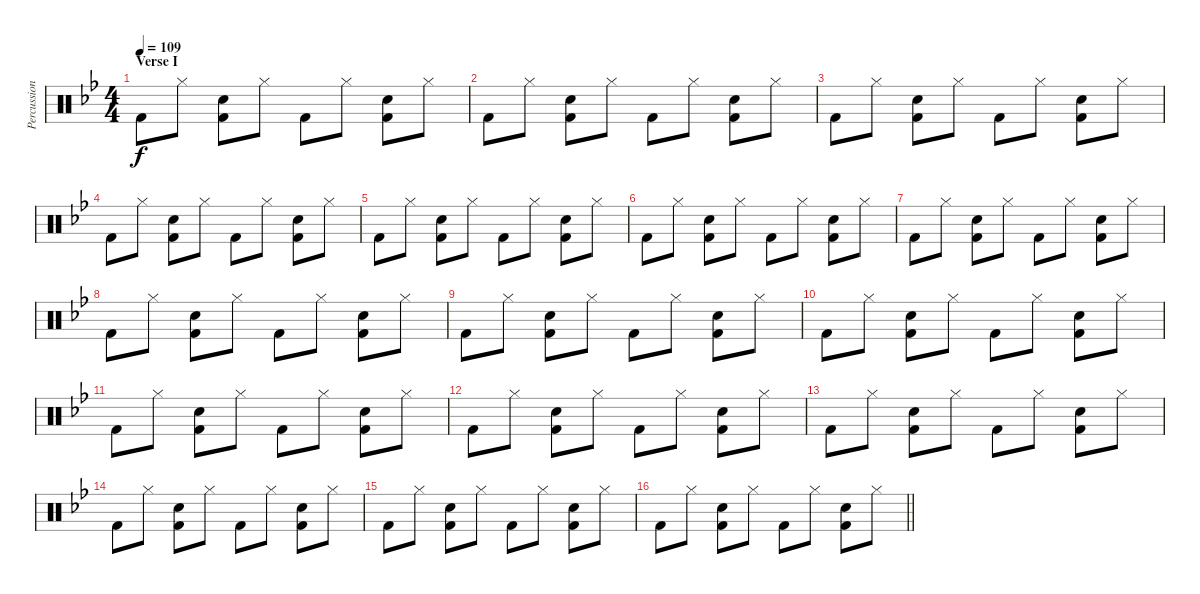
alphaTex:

\track ("Percussions" "Percussion") {instrument percussion}
\staff {score}
\articulation defaults
\ts (4 4)
\section ("" "Verse I")
\tempo 109
\clef neutral
\ks bb "Kick (hit) 2".8{dy f} "Hi-Hat (closed)".8
("Snare (hit) 2" "Kick (hit) 2").8 "Hi-Hat (closed)".8 "Kick (hit) 2".8 "Hi-Hat (closed)".8 ("Snare (hit) 2" "Kick (hit) 2").8 "Hi-Hat (closed)".8 |
"Kick (hit) 2".8 "Hi-Hat (closed)".8 ("Snare (hit) 2" "Kick (hit) 2").8 "Hi-Hat (closed)".8 "Kick (hit) 2".8 "Hi-Hat (closed)".8 ("Snare (hit) 2" "Kick (hit) 2").8 "Hi-Hat (closed)".8 |
"Kick (hit) 2".8 "Hi-Hat (closed)".8 ("Snare (hit) 2" "Kick (hit) 2").8 "Hi-Hat (closed)".8 "Kick (hit) 2".8 "Hi-Hat (closed)".8 ("Snare (hit) 2" "Kick (hit) 2").8 "Hi-Hat (closed)".8 |
"Kick (hit) 2".8 "Hi-Hat (closed)".8 ("Snare (hit) 2" "Kick (hit) 2").8 "Hi-Hat (closed)".8 "Kick (hit) 2".8 "Hi-Hat (closed)".8 ("Snare (hit) 2" "Kick (hit) 2").8 "Hi-Hat (closed)".8 |
"Kick (hit) 2".8 "Hi-Hat (closed)".8 ("Snare (hit) 2" "Kick (hit) 2").8 "Hi-Hat (closed)".8 "Kick (hit) 2".8 "Hi-Hat (closed)".8 ("Snare (hit) 2" "Kick (hit) 2").8 "Hi-Hat (closed)".8 |
"Kick (hit) 2".8 "Hi-Hat (closed)".8 ("Snare (hit) 2" "Kick (hit) 2").8 "Hi-Hat (closed)".8 "Kick (hit) 2".8 "Hi-Hat (closed)".8 ("Snare (hit) 2" "Kick (hit) 2").8 "Hi-Hat (closed)".8 |
"Kick (hit) 2".8 "Hi-Hat (closed)".8 ("Snare (hit) 2" "Kick (hit) 2").8 "Hi-Hat (closed)".8 "Kick (hit) 2".8 "Hi-Hat (closed)".8 ("Snare (hit) 2" "Kick (hit) 2").8 "Hi-Hat (closed)".8 |
"Kick (hit) 2".8 "Hi-Hat (closed)".8 ("Snare (hit) 2" "Kick (hit) 2").8 "Hi-Hat (closed)".8 "Kick (hit) 2".8 "Hi-Hat (closed)".8 ("Snare (hit) 2" "Kick (hit) 2").8 "Hi-Hat (closed)".8 |
"Kick (hit) 2".8 "Hi-Hat (closed)".8 ("Snare (hit) 2" "Kick (hit) 2").8 "Hi-Hat (closed)".8 "Kick (hit) 2".8 "Hi-Hat (closed)".8 ("Snare (hit) 2" "Kick (hit) 2").8 "Hi-Hat (closed)".8 |
"Kick (hit) 2".8 "Hi-Hat (closed)".8 ("Snare (hit) 2" "Kick (hit) 2").8 "Hi-Hat (closed)".8 "Kick (hit) 2".8 "Hi-Hat (closed)".8 ("Snare (hit) 2" "Kick (hit) 2").8 "Hi-Hat (closed)".8 |
"Kick (hit) 2".8 "Hi-Hat (closed)".8 ("Snare (hit) 2" "Kick (hit) 2").8 "Hi-Hat (closed)".8 "Kick (hit) 2".8 "Hi-Hat (closed)".8 ("Snare (hit) 2" "Kick (hit) 2").8 "Hi-Hat (closed)".8 |
"Kick (hit) 2".8 "Hi-Hat (closed)".8 ("Snare (hit) 2" "Kick (hit) 2").8 "Hi-Hat (closed)".8 "Kick (hit) 2".8 "Hi-Hat (closed)".8 ("Snare (hit) 2" "Kick (hit) 2").8 "Hi-Hat (closed)".8 |
"Kick (hit) 2".8 "Hi-Hat (closed)".8 ("Snare (hit) 2" "Kick (hit) 2").8 "Hi-Hat (closed)".8 "Kick (hit) 2".8 "Hi-Hat (closed)".8 ("Snare (hit) 2" "Kick (hit) 2").8 "Hi-Hat (closed)".8 |
"Kick (hit) 2".8 "Hi-Hat (closed)".8 ("Snare (hit) 2" "Kick (hit) 2").8 "Hi-Hat (closed)".8 "Kick (hit) 2".8 "Hi-Hat (closed)".8 ("Snare (hit) 2" "Kick (hit) 2").8 "Hi-Hat (closed)".8 |
"Kick (hit) 2".8 "Hi-Hat (closed)".8 ("Snare (hit) 2" "Kick (hit) 2").8 "Hi-Hat (closed)".8 "Kick (hit) 2".8 "Hi-Hat (closed)".8 ("Snare (hit) 2" "Kick (hit) 2").8 "Hi-Hat (closed)".8 |
\barLineRight lightlight "Kick (hit) 2".8 "Hi-Hat (closed)".8
("Snare (hit) 2" "Kick (hit) 2").8 "Hi-Hat (closed)".8 "Kick (hit) 2".8 "Hi-Hat (closed)".8 ("Snare (hit) 2" "Kick (hit) 2").8 "Hi-Hat (closed)".8
